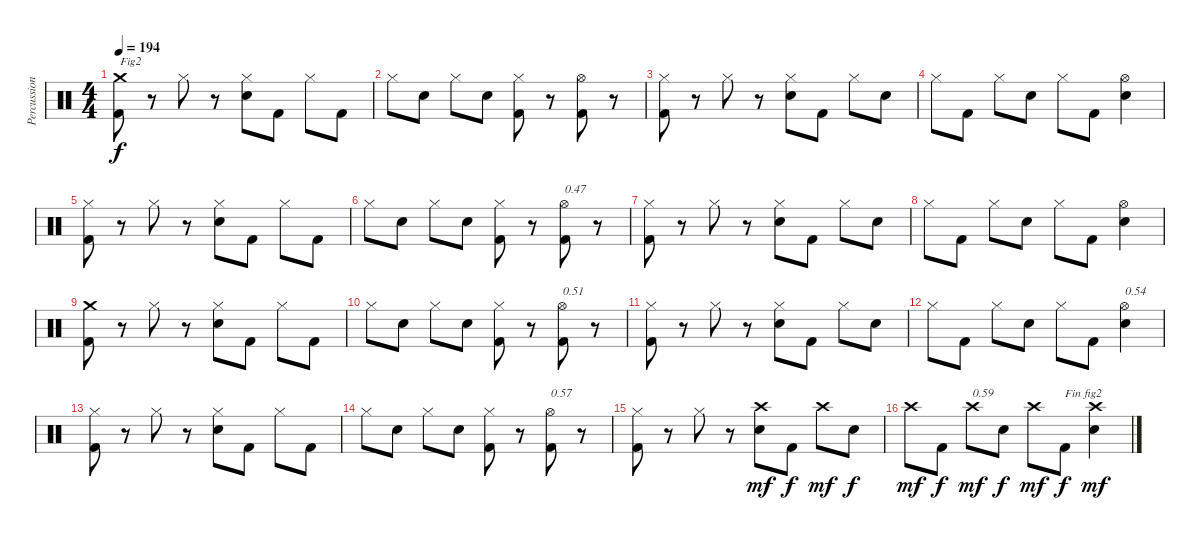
\track ("Percussions" "Percussion") {instrument percussion}
\staff {score}
\articulation defaults
\ts (4 4)
\tempo 194
\clef neutral
\ks c
("Kick (hit) 2" "Crash medium (hit)").8{txt "Fig2" dy f} r.8 "Hi-Hat (closed)".8 r.8 ("Electric Snare (hit)" "Hi-Hat (closed)").8 "Kick (hit) 2".8 "Hi-Hat (closed)".8 "Kick (hit) 2".8 |
"Hi-Hat (closed)".8 "Electric Snare (hit)".8 "Hi-Hat (closed)".8 "Electric Snare (hit)".8 ("Kick (hit) 2" "Hi-Hat (closed)").8 r.8 ("Kick (hit) 2" "Hi-Hat (open)").8 r.8 |
("Kick (hit) 2" "Hi-Hat (closed)").8 r.8 "Hi-Hat (closed)".8 r.8 ("Electric Snare (hit)" "Hi-Hat (closed)").8 "Kick (hit) 2".8 "Hi-Hat (closed)".8 "Electric Snare (hit)".8 |
"Hi-Hat (closed)".8 "Kick (hit) 2".8 "Hi-Hat (closed)".8 "Electric Snare (hit)".8 "Hi-Hat (closed)".8 "Kick (hit) 2".8 ("Electric Snare (hit)" "Hi-Hat (open)").4 |
("Kick (hit) 2" "Hi-Hat (closed)").8 r.8 "Hi-Hat (closed)".8 r.8 ("Electric Snare (hit)" "Hi-Hat (closed)").8 "Kick (hit) 2".8 "Hi-Hat (closed)".8 "Kick (hit) 2".8 |
"Hi-Hat (closed)".8 "Electric Snare (hit)".8 "Hi-Hat (closed)".8 "Electric Snare (hit)".8 ("Kick (hit) 2" "Hi-Hat (closed)").8 r.8 ("Kick (hit) 2" "Hi-Hat (open)").8{txt "0.47"} r.8 |
("Kick (hit) 2" "Hi-Hat (closed)").8 r.8 "Hi-Hat (closed)".8 r.8 ("Electric Snare (hit)" "Hi-Hat (closed)").8 "Kick (hit) 2".8 "Hi-Hat (closed)".8 "Electric Snare (hit)".8 |
"Hi-Hat (closed)".8 "Kick (hit) 2".8 "Hi-Hat (closed)".8 "Electric Snare (hit)".8 "Hi-Hat (closed)".8 "Kick (hit) 2".8 ("Electric Snare (hit)" "Hi-Hat (open)").4 |
("Kick (hit) 2" "Crash medium (hit)").8 r.8 "Hi-Hat (closed)".8 r.8 ("Electric Snare (hit)" "Hi-Hat (closed)").8 "Kick (hit) 2".8 "Hi-Hat (closed)".8 "Kick (hit) 2".8 |
"Hi-Hat (closed)".8 "Electric Snare (hit)".8 "Hi-Hat (closed)".8 "Electric Snare (hit)".8 ("Kick (hit) 2" "Hi-Hat (closed)").8 r.8 ("Kick (hit) 2" "Hi-Hat (open)").8{txt "0.51"} r.8 |
("Kick (hit) 2" "Hi-Hat (closed)").8 r.8 "Hi-Hat (closed)".8 r.8 ("Electric Snare (hit)" "Hi-Hat (closed)").8 "Kick (hit) 2".8 "Hi-Hat (closed)".8 "Electric Snare (hit)".8 |
"Hi-Hat (closed)".8 "Kick (hit) 2".8 "Hi-Hat (closed)".8 "Electric Snare (hit)".8 "Hi-Hat (closed)".8 "Kick (hit) 2".8 ("Electric Snare (hit)" "Hi-Hat (open)").4{txt "0.54"} |
("Kick (hit) 2" "Hi-Hat (closed)").8 r.8 "Hi-Hat (closed)".8 r.8 ("Electric Snare (hit)" "Hi-Hat (closed)").8 "Kick (hit) 2".8 "Hi-Hat (closed)".8 "Kick (hit) 2".8 |
"Hi-Hat (closed)".8 "Electric Snare (hit)".8 "Hi-Hat (closed)".8 "Electric Snare (hit)".8 ("Kick (hit) 2" "Hi-Hat (closed)").8 r.8 ("Kick (hit) 2" "Hi-Hat (open)").8{txt "0.57"} r.8 |
("Kick (hit) 2" "Hi-Hat (closed)").8 r.8 "Hi-Hat (closed)".8 r.8 ("Electric Snare (hit)" "Crash high (hit)").8{dy mf} "Kick (hit) 2".8{dy f} "Crash high (hit)".8{dy mf} "Electric Snare (hit)".8{dy f} |
"Crash high (hit)".8{dy mf} "Kick (hit) 2".8{dy f} "Crash high (hit)".8{txt "0.59" dy mf} "Electric Snare (hit)".8{dy f} "Crash high (hit)".8{dy mf} "Kick (hit) 2".8{txt "Fin fig2" dy f} ("Electric Snare (hit)" "Crash high (hit)").4{dy mf}
